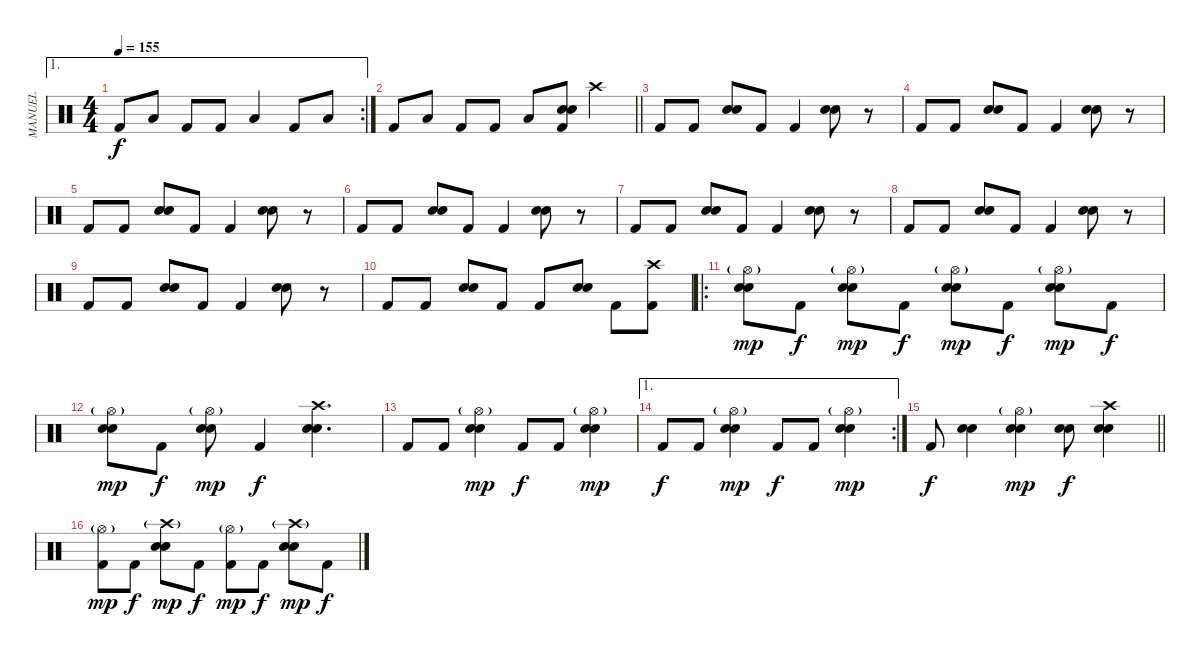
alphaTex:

\track ("MANUEL" "MANUEL") {instrument percussion}
\staff {score}
\articulation defaults
\ae 1
\rc 2
\ts (4 4)
\tempo 155
\clef neutral
\ks c "Kick (hit) 2".8{dy f} "Low Floor Tom (hit)".8 "Kick (hit) 2".8 "Kick (hit) 2".8 "Low Floor Tom (hit)".4 "Kick (hit) 2".8 "Low Floor Tom (hit)".8
|
\barLineRight lightlight "Kick (hit) 2".8 "Low Floor Tom (hit)".8 "Kick (hit) 2".8 "Kick (hit) 2".8 "Low Floor Tom (hit)".8
("Kick (hit) 2" "Electric Snare (hit)" "Snare (hit) 2").8 "Crash high (hit)".4 |
"Kick (hit) 2".8 "Kick (hit) 2".8 ("Electric Snare (hit)" "Snare (hit) 2").8 "Kick (hit) 2".8 "Kick (hit) 2".4 ("Electric Snare (hit)" "Snare (hit) 2").8 r.8 |
"Kick (hit) 2".8 "Kick (hit) 2".8 ("Electric Snare (hit)" "Snare (hit) 2").8 "Kick (hit) 2".8 "Kick (hit) 2".4 ("Electric Snare (hit)" "Snare (hit) 2").8 r.8 |
"Kick (hit) 2".8 "Kick (hit) 2".8 ("Electric Snare (hit)" "Snare (hit) 2").8 "Kick (hit) 2".8 "Kick (hit) 2".4 ("Electric Snare (hit)" "Snare (hit) 2").8 r.8 |
"Kick (hit) 2".8 "Kick (hit) 2".8 ("Electric Snare (hit)" "Snare (hit) 2").8 "Kick (hit) 2".8 "Kick (hit) 2".4 ("Electric Snare (hit)" "Snare (hit) 2").8 r.8 |
"Kick (hit) 2".8 "Kick (hit) 2".8 ("Electric Snare (hit)" "Snare (hit) 2").8 "Kick (hit) 2".8 "Kick (hit) 2".4 ("Electric Snare (hit)" "Snare (hit) 2").8 r.8 |
"Kick (hit) 2".8 "Kick (hit) 2".8 ("Electric Snare (hit)" "Snare (hit) 2").8 "Kick (hit) 2".8 "Kick (hit) 2".4 ("Electric Snare (hit)" "Snare (hit) 2").8 r.8 |
"Kick (hit) 2".8 "Kick (hit) 2".8 ("Electric Snare (hit)" "Snare (hit) 2").8 "Kick (hit) 2".8 "Kick (hit) 2".4 ("Electric Snare (hit)" "Snare (hit) 2").8 r.8 |
"Kick (hit) 2".8 "Kick (hit) 2".8 ("Electric Snare (hit)" "Snare (hit) 2").8 "Kick (hit) 2".8 "Kick (hit) 2".8 ("Electric Snare (hit)" "Snare (hit) 2").8 "Kick (hit) 2".8 ("Kick (hit) 2" "Crash high (hit)").8 |
\ro
("Hi-Hat (open)"{g} "Snare (hit) 2" "Electric Snare (hit)").8{dy mp} "Kick (hit) 2".8{dy f} ("Hi-Hat (open)"{g} "Snare (hit) 2" "Electric Snare (hit)").8{dy mp} "Kick (hit) 2".8{dy f} ("Hi-Hat (open)"{g} "Snare (hit) 2" "Electric Snare (hit)").8{dy mp} "Kick (hit) 2".8{dy f} ("Hi-Hat (open)"{g} "Snare (hit) 2" "Electric Snare (hit)").8{dy mp} "Kick (hit) 2".8{dy f} |
("Hi-Hat (open)"{g} "Snare (hit) 2" "Electric Snare (hit)").8{dy mp} "Kick (hit) 2".8{dy f} ("Hi-Hat (open)"{g} "Snare (hit) 2" "Electric Snare (hit)").8{dy mp} "Kick (hit) 2".4{dy f} ("Crash high (hit)" "Snare (hit) 2" "Electric Snare (hit)").4{d} |
"Kick (hit) 2".8 "Kick (hit) 2".8 ("Hi-Hat (open)"{g} "Snare (hit) 2" "Electric Snare (hit)").4{dy mp} "Kick (hit) 2".8{dy f} "Kick (hit) 2".8 ("Hi-Hat (open)"{g} "Snare (hit) 2" "Electric Snare (hit)").4{dy mp} |
\ae 1
\rc 2 "Kick (hit) 2".8{dy f} "Kick (hit) 2".8
("Hi-Hat (open)"{g} "Snare (hit) 2" "Electric Snare (hit)").4{dy mp} "Kick (hit) 2".8{dy f} "Kick (hit) 2".8 ("Hi-Hat (open)"{g} "Snare (hit) 2" "Electric Snare (hit)").4{dy mp} |
\barLineRight lightlight "Kick (hit) 2".8{dy f}
("Snare (hit) 2" "Electric Snare (hit)").4 ("Hi-Hat (open)"{g} "Snare (hit) 2" "Electric Snare (hit)").4{dy mp} ("Snare (hit) 2" "Electric Snare (hit)").8{dy f} ("Crash high (hit)" "Snare (hit) 2" "Electric Snare (hit)").4 |
("Hi-Hat (open)"{g} "Kick (hit) 2").8{dy mp} "Kick (hit) 2".8{dy f} ("Crash high (hit)"{g} "Snare (hit) 2" "Electric Snare (hit)").8{dy mp} "Kick (hit) 2".8{dy f} ("Hi-Hat (open)"{g} "Kick (hit) 2").8{dy mp} "Kick (hit) 2".8{dy f} ("Crash high (hit)"{g} "Snare (hit) 2" "Electric Snare (hit)").8{dy mp} "Kick (hit) 2".8{dy f}
